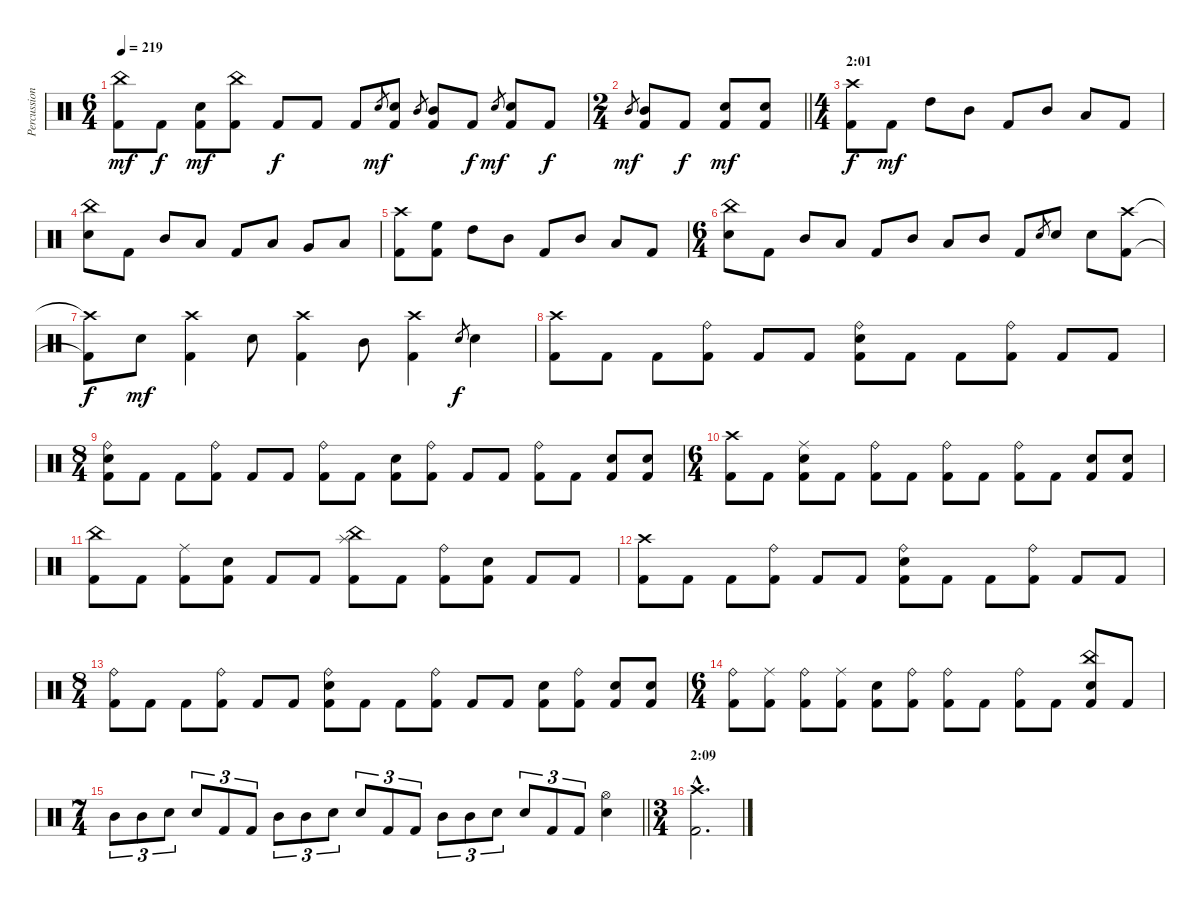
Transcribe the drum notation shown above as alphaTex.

\track ("Percussion" "Percussion") {instrument percussion}
\staff {score}
\articulation defaults
\ts (6 4)
\tempo 219
\clef neutral
\ks c
("Kick (hit) 2" "China (hit)").8{dy mf} "Kick (hit) 2".8{dy f} ("Kick (hit) 2" "Electric Snare (hit)").8{dy mf} ("Kick (hit) 2" "China (hit)").8 "Kick (hit) 2".8{dy f} "Kick (hit) 2".8 "Kick (hit) 2".8 "Electric Snare (hit)".8{gr dy mf} ("Kick (hit) 2" "Electric Snare (hit)").8 "Mid Tom (hit)".8{gr} ("Kick (hit) 2" "Mid Tom (hit)").8 "Kick (hit) 2".8{dy f} "Electric Snare (hit)".8{gr dy mf} ("Kick (hit) 2" "Electric Snare (hit)").8 "Kick (hit) 2".8{dy f} |
\ts (2 4)
\barLineRight lightlight "Mid Tom (hit)".8{gr dy mf}
("Kick (hit) 2" "Mid Tom (hit)").8 "Kick (hit) 2".8{dy f} ("Kick (hit) 2" "Electric Snare (hit)").8{dy mf} ("Kick (hit) 2" "Electric Snare (hit)").8 |
\ts (4 4)
\section ("" "2:01")
("Kick (hit) 2" "Crash high (hit)").8{dy f} "Kick (hit) 2".8{dy mf} "High Tom (hit)".8 "Mid Tom (hit)".8 "Kick (hit) 2".8 "Mid Tom (hit)".8 "Low Tom (hit)".8 "Kick (hit) 2".8 |
("China (hit)" "Electric Snare (hit)").8 "Kick (hit) 2".8 "Mid Tom (hit)".8 "Low Tom (hit)".8 "Kick (hit) 2".8 "Low Tom (hit)".8 "Very Low Tom (hit)".8 "Low Floor Tom (hit)".8 |
("Crash high (hit)" "Kick (hit) 2").8 ("Kick (hit) 2" "High Floor Tom (hit)").8 "High Tom (hit)".8 "Mid Tom (hit)".8 "Kick (hit) 2".8 "Mid Tom (hit)".8 "Low Tom (hit)".8 "Kick (hit) 2".8 |
\ts (6 4)
("China (hit)" "Electric Snare (hit)").8 "Kick (hit) 2".8 "Mid Tom (hit)".8 "Low Tom (hit)".8 "Kick (hit) 2".8 "Mid Tom (hit)".8 "Low Tom (hit)".8 "Mid Tom (hit)".8 "Kick (hit) 2".8 "Electric Snare (hit)".8{gr} "Electric Snare (hit)".8 "Electric Snare (hit)".8 ("Crash high (hit)" "Kick (hit) 2").8 |
("Crash high (hit)"{t} "Kick (hit) 2"{t}).8{dy f} "Electric Snare (hit)".8{dy mf} ("Crash high (hit)" "Kick (hit) 2").4 "Electric Snare (hit)".8 ("Crash high (hit)" "Kick (hit) 2").4 "Mid Tom (hit)".8 ("Crash high (hit)" "Kick (hit) 2").4 "Electric Snare (hit)".8{gr dy f} "Electric Snare (hit)".4 |
("Kick (hit) 2" "Crash high (hit)").8 "Kick (hit) 2".8 "Kick (hit) 2".8 ("Kick (hit) 2" "Ride (bell)").8 "Kick (hit) 2".8 "Kick (hit) 2".8 ("Kick (hit) 2" "Ride (bell)" "Electric Snare (hit)").8 "Kick (hit) 2".8 "Kick (hit) 2".8 ("Kick (hit) 2" "Ride (bell)").8 "Kick (hit) 2".8 "Kick (hit) 2".8 |
\ts (8 4)
("Kick (hit) 2" "Ride (bell)" "Electric Snare (hit)").8 "Kick (hit) 2".8 "Kick (hit) 2".8 ("Kick (hit) 2" "Ride (bell)").8 "Kick (hit) 2".8 "Kick (hit) 2".8 ("Kick (hit) 2" "Ride (bell)").8 "Kick (hit) 2".8 ("Kick (hit) 2" "Electric Snare (hit)").8 ("Kick (hit) 2" "Ride (bell)").8 "Kick (hit) 2".8 "Kick (hit) 2".8 ("Kick (hit) 2" "Ride (bell)").8 "Kick (hit) 2".8 ("Kick (hit) 2" "Electric Snare (hit)").8 ("Kick (hit) 2" "Electric Snare (hit)").8 |
\ts (6 4)
("Kick (hit) 2" "Crash high (hit)").8 "Kick (hit) 2".8 ("Kick (hit) 2" "Electric Snare (hit)" "Ride (middle)").8 "Kick (hit) 2".8 ("Kick (hit) 2" "Ride (bell)").8 "Kick (hit) 2".8 ("Kick (hit) 2" "Ride (bell)").8 "Kick (hit) 2".8 ("Kick (hit) 2" "Ride (bell)").8 "Kick (hit) 2".8 ("Kick (hit) 2" "Electric Snare (hit)").8 ("Kick (hit) 2" "Electric Snare (hit)").8 |
("Kick (hit) 2" "China (hit)").8 "Kick (hit) 2".8 ("Kick (hit) 2" "Ride (middle)").8 ("Kick (hit) 2" "Electric Snare (hit)").8 "Kick (hit) 2".8 "Kick (hit) 2".8 ("Kick (hit) 2" "China (hit)" "Splash (hit)").8 "Kick (hit) 2".8 ("Kick (hit) 2" "Ride (bell)").8 ("Kick (hit) 2" "Electric Snare (hit)").8 "Kick (hit) 2".8 "Kick (hit) 2".8 |
("Kick (hit) 2" "Crash high (hit)").8 "Kick (hit) 2".8 "Kick (hit) 2".8 ("Kick (hit) 2" "Ride (bell)").8 "Kick (hit) 2".8 "Kick (hit) 2".8 ("Kick (hit) 2" "Ride (bell)" "Electric Snare (hit)").8 "Kick (hit) 2".8 "Kick (hit) 2".8 ("Kick (hit) 2" "Ride (bell)").8 "Kick (hit) 2".8 "Kick (hit) 2".8 |
\ts (8 4)
("Kick (hit) 2" "Ride (bell)").8 "Kick (hit) 2".8 "Kick (hit) 2".8 ("Kick (hit) 2" "Ride (bell)").8 "Kick (hit) 2".8 "Kick (hit) 2".8 ("Kick (hit) 2" "Ride (bell)" "Electric Snare (hit)").8 "Kick (hit) 2".8 "Kick (hit) 2".8 ("Kick (hit) 2" "Ride (bell)").8 "Kick (hit) 2".8 "Kick (hit) 2".8 ("Kick (hit) 2" "Electric Snare (hit)").8 ("Kick (hit) 2" "Ride (bell)").8 ("Kick (hit) 2" "Electric Snare (hit)").8 ("Kick (hit) 2" "Electric Snare (hit)").8 |
\ts (6 4)
("Kick (hit) 2" "Ride (bell)").8 ("Kick (hit) 2" "Ride (middle)").8 ("Kick (hit) 2" "Ride (bell)").8 ("Kick (hit) 2" "Ride (middle)").8 ("Kick (hit) 2" "Electric Snare (hit)").8 ("Kick (hit) 2" "Ride (bell)").8 ("Kick (hit) 2" "Ride (bell)").8 "Kick (hit) 2".8 ("Kick (hit) 2" "Ride (bell)").8 "Kick (hit) 2".8 ("Kick (hit) 2" "Electric Snare (hit)" "China (hit)").8 "Kick (hit) 2".8 |
\ts (7 4)
\barLineRight lightlight "Mid Tom (hit)".8{tu (3 2)} "Mid Tom (hit)".8{tu (3 2)} "Electric Snare (hit)".8{tu (3 2)} "Electric Snare (hit)".8{tu (3 2)} "Kick (hit) 2".8{tu (3 2)} "Kick (hit) 2".8{tu (3 2)} "Mid Tom (hit)".8{tu (3 2)} "Mid Tom (hit)".8{tu (3 2)} "Electric Snare (hit)".8{tu (3 2)} "Electric Snare (hit)".8{tu (3 2)} "Kick (hit) 2".8{tu (3 2)} "Kick (hit) 2".8{tu (3 2)} "Mid Tom (hit)".8{tu (3 2)} "Mid Tom (hit)".8{tu (3 2)} "Electric Snare (hit)".8{tu (3 2)} "Electric Snare (hit)".8{tu (3 2)} "Kick (hit) 2".8{tu (3 2)} "Kick (hit) 2".8{tu (3 2)}
("Hi-Hat (open)" "Electric Snare (hit)").4 |
\ts (3 4)
\section ("" "2:09")
("Crash high (hit)"{hac} "Kick (hit) 2"{hac}).2{d}
